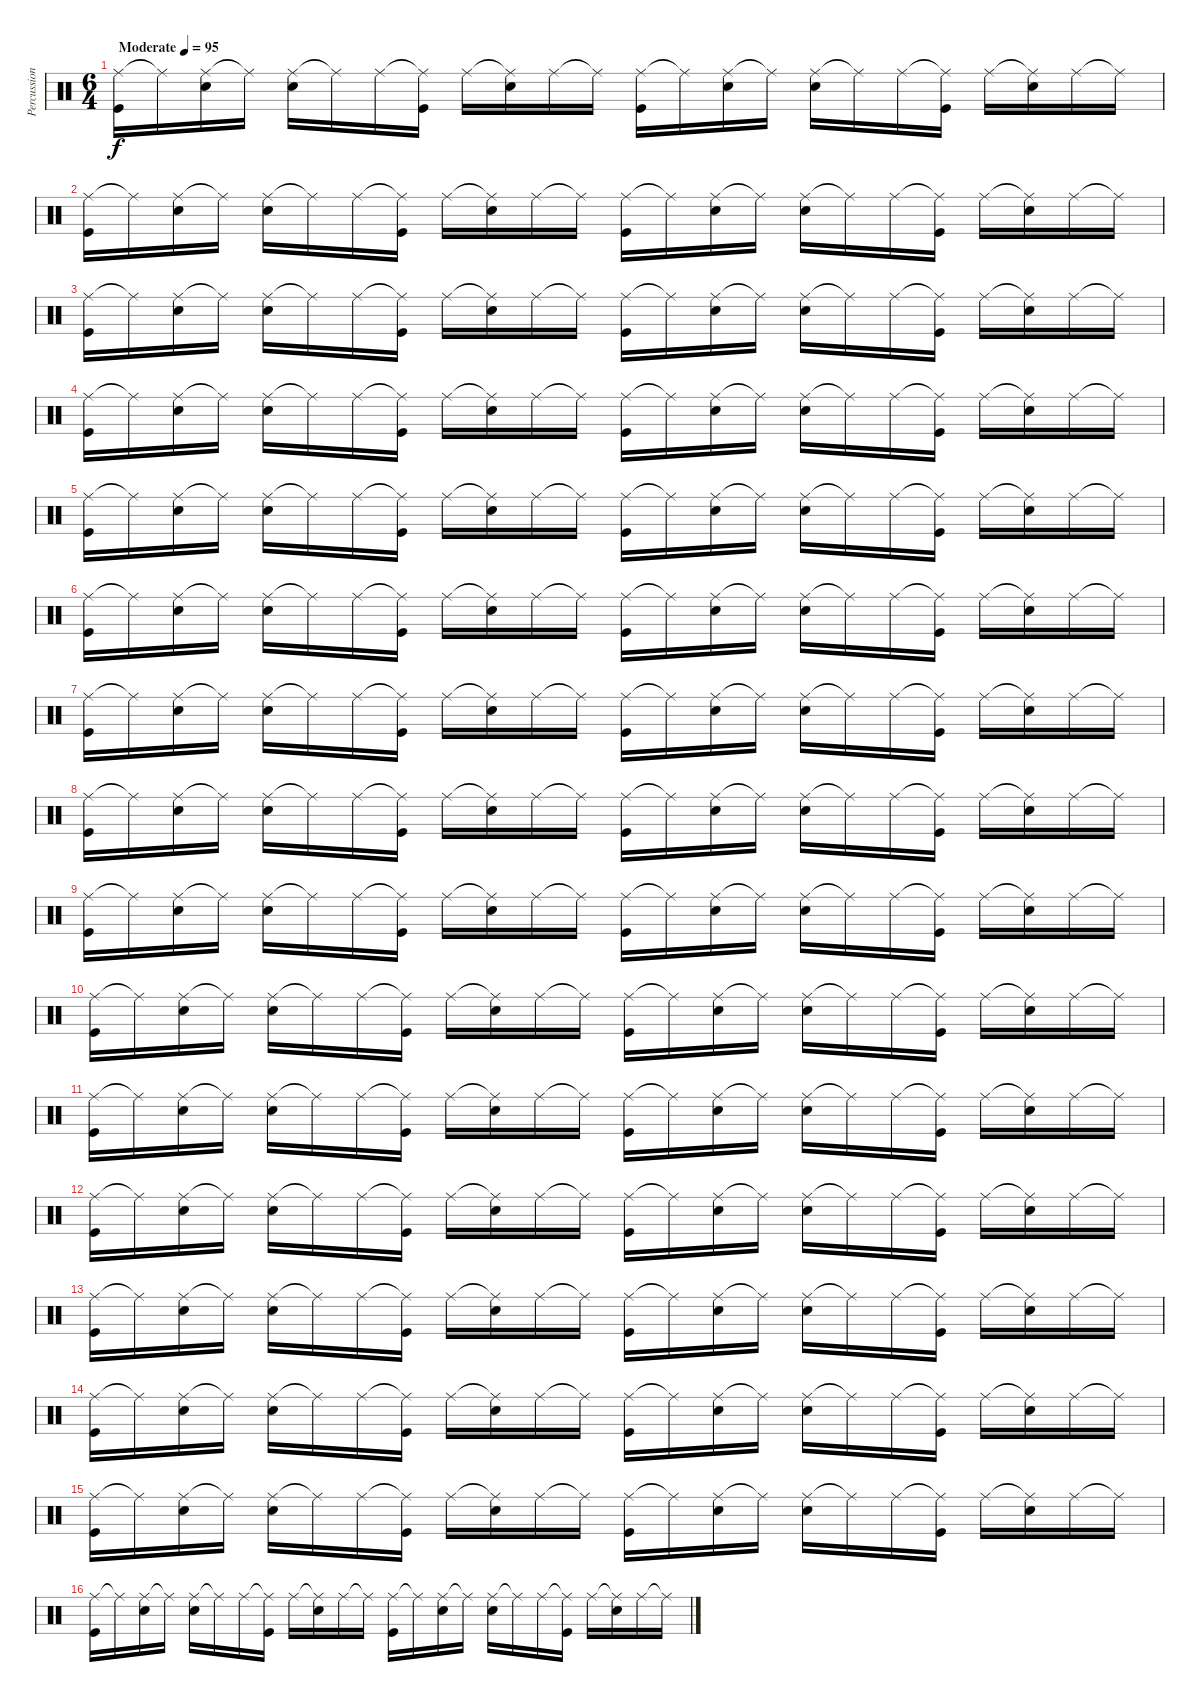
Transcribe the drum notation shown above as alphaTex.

\track ("Percussion" "Percussion") {instrument percussion}
\staff {score}
\articulation defaults
\ts (6 4)
\tempo (95 "Moderate")
\clef neutral
\ks c
("Ride (middle)" "Kick (hit)").16{dy f} "Ride (middle)"{t}.16 ("Ride (middle)" "Snare (hit) 2").16 "Ride (middle)"{t}.16 ("Ride (middle)" "Snare (hit) 2").16 "Ride (middle)"{t}.16 "Ride (middle)".16 ("Ride (middle)"{t} "Kick (hit)").16 "Ride (middle)".16 ("Ride (middle)"{t} "Snare (hit) 2").16 "Ride (middle)".16 "Ride (middle)"{t}.16 ("Ride (middle)" "Kick (hit)").16 "Ride (middle)"{t}.16 ("Ride (middle)" "Snare (hit) 2").16 "Ride (middle)"{t}.16 ("Ride (middle)" "Snare (hit) 2").16 "Ride (middle)"{t}.16 "Ride (middle)".16 ("Ride (middle)"{t} "Kick (hit)").16 "Ride (middle)".16 ("Ride (middle)"{t} "Snare (hit) 2").16 "Ride (middle)".16 "Ride (middle)"{t}.16 |
("Ride (middle)" "Kick (hit)").16 "Ride (middle)"{t}.16 ("Ride (middle)" "Snare (hit) 2").16 "Ride (middle)"{t}.16 ("Ride (middle)" "Snare (hit) 2").16 "Ride (middle)"{t}.16 "Ride (middle)".16 ("Ride (middle)"{t} "Kick (hit)").16 "Ride (middle)".16 ("Ride (middle)"{t} "Snare (hit) 2").16 "Ride (middle)".16 "Ride (middle)"{t}.16 ("Ride (middle)" "Kick (hit)").16 "Ride (middle)"{t}.16 ("Ride (middle)" "Snare (hit) 2").16 "Ride (middle)"{t}.16 ("Ride (middle)" "Snare (hit) 2").16 "Ride (middle)"{t}.16 "Ride (middle)".16 ("Ride (middle)"{t} "Kick (hit)").16 "Ride (middle)".16 ("Ride (middle)"{t} "Snare (hit) 2").16 "Ride (middle)".16 "Ride (middle)"{t}.16 |
("Ride (middle)" "Kick (hit)").16 "Ride (middle)"{t}.16 ("Ride (middle)" "Snare (hit) 2").16 "Ride (middle)"{t}.16 ("Ride (middle)" "Snare (hit) 2").16 "Ride (middle)"{t}.16 "Ride (middle)".16 ("Ride (middle)"{t} "Kick (hit)").16 "Ride (middle)".16 ("Ride (middle)"{t} "Snare (hit) 2").16 "Ride (middle)".16 "Ride (middle)"{t}.16 ("Ride (middle)" "Kick (hit)").16 "Ride (middle)"{t}.16 ("Ride (middle)" "Snare (hit) 2").16 "Ride (middle)"{t}.16 ("Ride (middle)" "Snare (hit) 2").16 "Ride (middle)"{t}.16 "Ride (middle)".16 ("Ride (middle)"{t} "Kick (hit)").16 "Ride (middle)".16 ("Ride (middle)"{t} "Snare (hit) 2").16 "Ride (middle)".16 "Ride (middle)"{t}.16 |
("Ride (middle)" "Kick (hit)").16 "Ride (middle)"{t}.16 ("Ride (middle)" "Snare (hit) 2").16 "Ride (middle)"{t}.16 ("Ride (middle)" "Snare (hit) 2").16 "Ride (middle)"{t}.16 "Ride (middle)".16 ("Ride (middle)"{t} "Kick (hit)").16 "Ride (middle)".16 ("Ride (middle)"{t} "Snare (hit) 2").16 "Ride (middle)".16 "Ride (middle)"{t}.16 ("Ride (middle)" "Kick (hit)").16 "Ride (middle)"{t}.16 ("Ride (middle)" "Snare (hit) 2").16 "Ride (middle)"{t}.16 ("Ride (middle)" "Snare (hit) 2").16 "Ride (middle)"{t}.16 "Ride (middle)".16 ("Ride (middle)"{t} "Kick (hit)").16 "Ride (middle)".16 ("Ride (middle)"{t} "Snare (hit) 2").16 "Ride (middle)".16 "Ride (middle)"{t}.16 |
("Ride (middle)" "Kick (hit)").16 "Ride (middle)"{t}.16 ("Ride (middle)" "Snare (hit) 2").16 "Ride (middle)"{t}.16 ("Ride (middle)" "Snare (hit) 2").16 "Ride (middle)"{t}.16 "Ride (middle)".16 ("Ride (middle)"{t} "Kick (hit)").16 "Ride (middle)".16 ("Ride (middle)"{t} "Snare (hit) 2").16 "Ride (middle)".16 "Ride (middle)"{t}.16 ("Ride (middle)" "Kick (hit)").16 "Ride (middle)"{t}.16 ("Ride (middle)" "Snare (hit) 2").16 "Ride (middle)"{t}.16 ("Ride (middle)" "Snare (hit) 2").16 "Ride (middle)"{t}.16 "Ride (middle)".16 ("Ride (middle)"{t} "Kick (hit)").16 "Ride (middle)".16 ("Ride (middle)"{t} "Snare (hit) 2").16 "Ride (middle)".16 "Ride (middle)"{t}.16 |
("Ride (middle)" "Kick (hit)").16 "Ride (middle)"{t}.16 ("Ride (middle)" "Snare (hit) 2").16 "Ride (middle)"{t}.16 ("Ride (middle)" "Snare (hit) 2").16 "Ride (middle)"{t}.16 "Ride (middle)".16 ("Ride (middle)"{t} "Kick (hit)").16 "Ride (middle)".16 ("Ride (middle)"{t} "Snare (hit) 2").16 "Ride (middle)".16 "Ride (middle)"{t}.16 ("Ride (middle)" "Kick (hit)").16 "Ride (middle)"{t}.16 ("Ride (middle)" "Snare (hit) 2").16 "Ride (middle)"{t}.16 ("Ride (middle)" "Snare (hit) 2").16 "Ride (middle)"{t}.16 "Ride (middle)".16 ("Ride (middle)"{t} "Kick (hit)").16 "Ride (middle)".16 ("Ride (middle)"{t} "Snare (hit) 2").16 "Ride (middle)".16 "Ride (middle)"{t}.16 |
("Ride (middle)" "Kick (hit)").16 "Ride (middle)"{t}.16 ("Ride (middle)" "Snare (hit) 2").16 "Ride (middle)"{t}.16 ("Ride (middle)" "Snare (hit) 2").16 "Ride (middle)"{t}.16 "Ride (middle)".16 ("Ride (middle)"{t} "Kick (hit)").16 "Ride (middle)".16 ("Ride (middle)"{t} "Snare (hit) 2").16 "Ride (middle)".16 "Ride (middle)"{t}.16 ("Ride (middle)" "Kick (hit)").16 "Ride (middle)"{t}.16 ("Ride (middle)" "Snare (hit) 2").16 "Ride (middle)"{t}.16 ("Ride (middle)" "Snare (hit) 2").16 "Ride (middle)"{t}.16 "Ride (middle)".16 ("Ride (middle)"{t} "Kick (hit)").16 "Ride (middle)".16 ("Ride (middle)"{t} "Snare (hit) 2").16 "Ride (middle)".16 "Ride (middle)"{t}.16 |
("Ride (middle)" "Kick (hit)").16 "Ride (middle)"{t}.16 ("Ride (middle)" "Snare (hit) 2").16 "Ride (middle)"{t}.16 ("Ride (middle)" "Snare (hit) 2").16 "Ride (middle)"{t}.16 "Ride (middle)".16 ("Ride (middle)"{t} "Kick (hit)").16 "Ride (middle)".16 ("Ride (middle)"{t} "Snare (hit) 2").16 "Ride (middle)".16 "Ride (middle)"{t}.16 ("Ride (middle)" "Kick (hit)").16 "Ride (middle)"{t}.16 ("Ride (middle)" "Snare (hit) 2").16 "Ride (middle)"{t}.16 ("Ride (middle)" "Snare (hit) 2").16 "Ride (middle)"{t}.16 "Ride (middle)".16 ("Ride (middle)"{t} "Kick (hit)").16 "Ride (middle)".16 ("Ride (middle)"{t} "Snare (hit) 2").16 "Ride (middle)".16 "Ride (middle)"{t}.16 |
("Ride (middle)" "Kick (hit)").16 "Ride (middle)"{t}.16 ("Ride (middle)" "Snare (hit) 2").16 "Ride (middle)"{t}.16 ("Ride (middle)" "Snare (hit) 2").16 "Ride (middle)"{t}.16 "Ride (middle)".16 ("Ride (middle)"{t} "Kick (hit)").16 "Ride (middle)".16 ("Ride (middle)"{t} "Snare (hit) 2").16 "Ride (middle)".16 "Ride (middle)"{t}.16 ("Ride (middle)" "Kick (hit)").16 "Ride (middle)"{t}.16 ("Ride (middle)" "Snare (hit) 2").16 "Ride (middle)"{t}.16 ("Ride (middle)" "Snare (hit) 2").16 "Ride (middle)"{t}.16 "Ride (middle)".16 ("Ride (middle)"{t} "Kick (hit)").16 "Ride (middle)".16 ("Ride (middle)"{t} "Snare (hit) 2").16 "Ride (middle)".16 "Ride (middle)"{t}.16 |
("Ride (middle)" "Kick (hit)").16 "Ride (middle)"{t}.16 ("Ride (middle)" "Snare (hit) 2").16 "Ride (middle)"{t}.16 ("Ride (middle)" "Snare (hit) 2").16 "Ride (middle)"{t}.16 "Ride (middle)".16 ("Ride (middle)"{t} "Kick (hit)").16 "Ride (middle)".16 ("Ride (middle)"{t} "Snare (hit) 2").16 "Ride (middle)".16 "Ride (middle)"{t}.16 ("Ride (middle)" "Kick (hit)").16 "Ride (middle)"{t}.16 ("Ride (middle)" "Snare (hit) 2").16 "Ride (middle)"{t}.16 ("Ride (middle)" "Snare (hit) 2").16 "Ride (middle)"{t}.16 "Ride (middle)".16 ("Ride (middle)"{t} "Kick (hit)").16 "Ride (middle)".16 ("Ride (middle)"{t} "Snare (hit) 2").16 "Ride (middle)".16 "Ride (middle)"{t}.16 |
("Ride (middle)" "Kick (hit)").16 "Ride (middle)"{t}.16 ("Ride (middle)" "Snare (hit) 2").16 "Ride (middle)"{t}.16 ("Ride (middle)" "Snare (hit) 2").16 "Ride (middle)"{t}.16 "Ride (middle)".16 ("Ride (middle)"{t} "Kick (hit)").16 "Ride (middle)".16 ("Ride (middle)"{t} "Snare (hit) 2").16 "Ride (middle)".16 "Ride (middle)"{t}.16 ("Ride (middle)" "Kick (hit)").16 "Ride (middle)"{t}.16 ("Ride (middle)" "Snare (hit) 2").16 "Ride (middle)"{t}.16 ("Ride (middle)" "Snare (hit) 2").16 "Ride (middle)"{t}.16 "Ride (middle)".16 ("Ride (middle)"{t} "Kick (hit)").16 "Ride (middle)".16 ("Ride (middle)"{t} "Snare (hit) 2").16 "Ride (middle)".16 "Ride (middle)"{t}.16 |
("Ride (middle)" "Kick (hit)").16 "Ride (middle)"{t}.16 ("Ride (middle)" "Snare (hit) 2").16 "Ride (middle)"{t}.16 ("Ride (middle)" "Snare (hit) 2").16 "Ride (middle)"{t}.16 "Ride (middle)".16 ("Ride (middle)"{t} "Kick (hit)").16 "Ride (middle)".16 ("Ride (middle)"{t} "Snare (hit) 2").16 "Ride (middle)".16 "Ride (middle)"{t}.16 ("Ride (middle)" "Kick (hit)").16 "Ride (middle)"{t}.16 ("Ride (middle)" "Snare (hit) 2").16 "Ride (middle)"{t}.16 ("Ride (middle)" "Snare (hit) 2").16 "Ride (middle)"{t}.16 "Ride (middle)".16 ("Ride (middle)"{t} "Kick (hit)").16 "Ride (middle)".16 ("Ride (middle)"{t} "Snare (hit) 2").16 "Ride (middle)".16 "Ride (middle)"{t}.16 |
("Ride (middle)" "Kick (hit)").16 "Ride (middle)"{t}.16 ("Ride (middle)" "Snare (hit) 2").16 "Ride (middle)"{t}.16 ("Ride (middle)" "Snare (hit) 2").16 "Ride (middle)"{t}.16 "Ride (middle)".16 ("Ride (middle)"{t} "Kick (hit)").16 "Ride (middle)".16 ("Ride (middle)"{t} "Snare (hit) 2").16 "Ride (middle)".16 "Ride (middle)"{t}.16 ("Ride (middle)" "Kick (hit)").16 "Ride (middle)"{t}.16 ("Ride (middle)" "Snare (hit) 2").16 "Ride (middle)"{t}.16 ("Ride (middle)" "Snare (hit) 2").16 "Ride (middle)"{t}.16 "Ride (middle)".16 ("Ride (middle)"{t} "Kick (hit)").16 "Ride (middle)".16 ("Ride (middle)"{t} "Snare (hit) 2").16 "Ride (middle)".16 "Ride (middle)"{t}.16 |
("Ride (middle)" "Kick (hit)").16 "Ride (middle)"{t}.16 ("Ride (middle)" "Snare (hit) 2").16 "Ride (middle)"{t}.16 ("Ride (middle)" "Snare (hit) 2").16 "Ride (middle)"{t}.16 "Ride (middle)".16 ("Ride (middle)"{t} "Kick (hit)").16 "Ride (middle)".16 ("Ride (middle)"{t} "Snare (hit) 2").16 "Ride (middle)".16 "Ride (middle)"{t}.16 ("Ride (middle)" "Kick (hit)").16 "Ride (middle)"{t}.16 ("Ride (middle)" "Snare (hit) 2").16 "Ride (middle)"{t}.16 ("Ride (middle)" "Snare (hit) 2").16 "Ride (middle)"{t}.16 "Ride (middle)".16 ("Ride (middle)"{t} "Kick (hit)").16 "Ride (middle)".16 ("Ride (middle)"{t} "Snare (hit) 2").16 "Ride (middle)".16 "Ride (middle)"{t}.16 |
("Ride (middle)" "Kick (hit)").16 "Ride (middle)"{t}.16 ("Ride (middle)" "Snare (hit) 2").16 "Ride (middle)"{t}.16 ("Ride (middle)" "Snare (hit) 2").16 "Ride (middle)"{t}.16 "Ride (middle)".16 ("Ride (middle)"{t} "Kick (hit)").16 "Ride (middle)".16 ("Ride (middle)"{t} "Snare (hit) 2").16 "Ride (middle)".16 "Ride (middle)"{t}.16 ("Ride (middle)" "Kick (hit)").16 "Ride (middle)"{t}.16 ("Ride (middle)" "Snare (hit) 2").16 "Ride (middle)"{t}.16 ("Ride (middle)" "Snare (hit) 2").16 "Ride (middle)"{t}.16 "Ride (middle)".16 ("Ride (middle)"{t} "Kick (hit)").16 "Ride (middle)".16 ("Ride (middle)"{t} "Snare (hit) 2").16 "Ride (middle)".16 "Ride (middle)"{t}.16 |
("Ride (middle)" "Kick (hit)").16 "Ride (middle)"{t}.16 ("Ride (middle)" "Snare (hit) 2").16 "Ride (middle)"{t}.16 ("Ride (middle)" "Snare (hit) 2").16 "Ride (middle)"{t}.16 "Ride (middle)".16 ("Ride (middle)"{t} "Kick (hit)").16 "Ride (middle)".16 ("Ride (middle)"{t} "Snare (hit) 2").16 "Ride (middle)".16 "Ride (middle)"{t}.16 ("Ride (middle)" "Kick (hit)").16 "Ride (middle)"{t}.16 ("Ride (middle)" "Snare (hit) 2").16 "Ride (middle)"{t}.16 ("Ride (middle)" "Snare (hit) 2").16 "Ride (middle)"{t}.16 "Ride (middle)".16 ("Ride (middle)"{t} "Kick (hit)").16 "Ride (middle)".16 ("Ride (middle)"{t} "Snare (hit) 2").16 "Ride (middle)".16 "Ride (middle)"{t}.16
